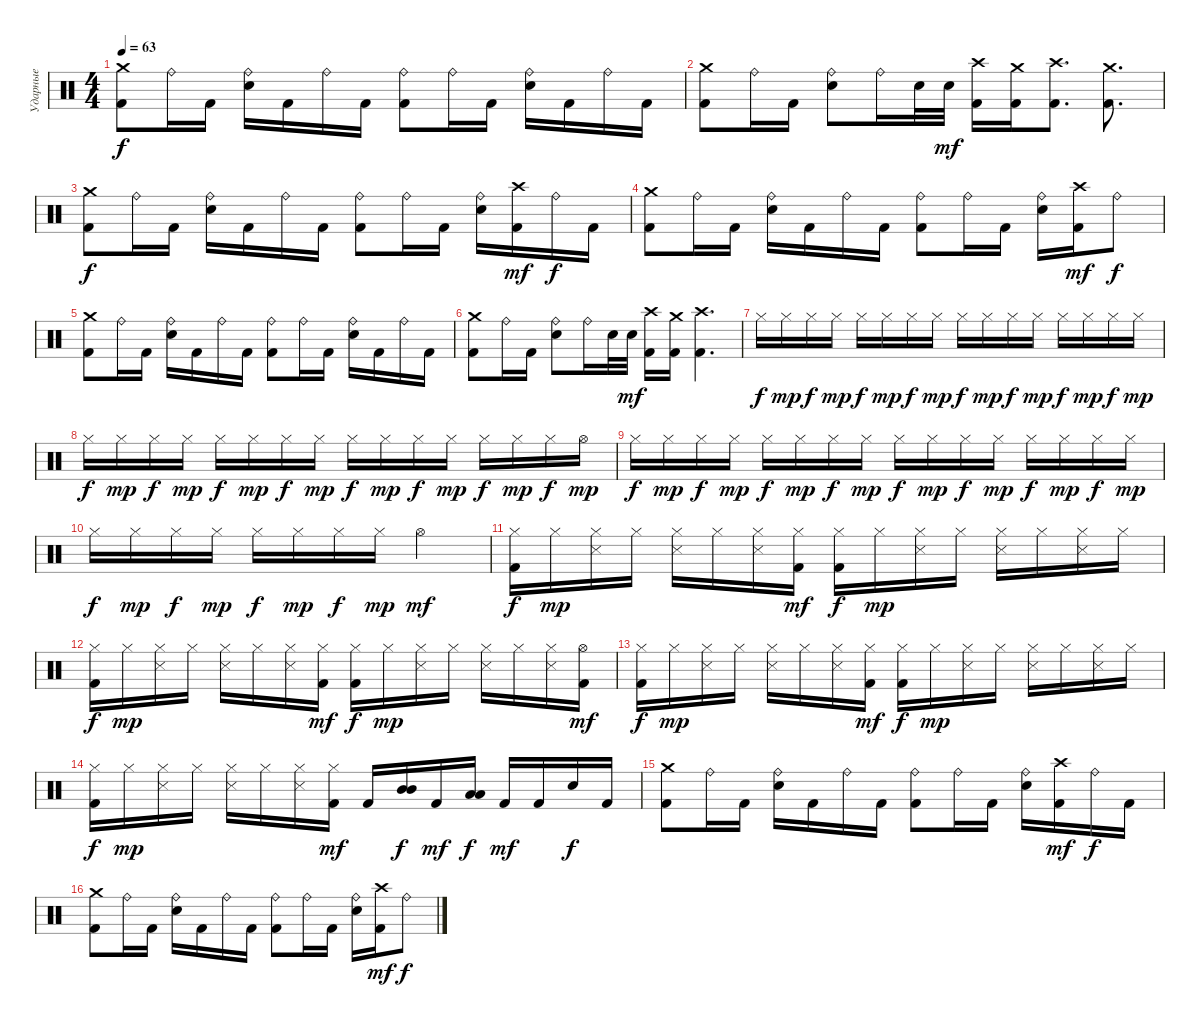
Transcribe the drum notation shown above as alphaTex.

\track ("Ударные" "Ударные") {instrument percussion}
\staff {score}
\articulation defaults
\ts (4 4)
\tempo 63
\clef neutral
\ks c
("Crash medium (hit)" "Kick (hit) 2").8{dy f} "Ride (bell)".16 "Kick (hit) 2".16 ("Ride (bell)" "Snare (hit) 2").16 "Kick (hit) 2".16 "Ride (bell)".16 "Kick (hit) 2".16 ("Ride (bell)" "Kick (hit) 2").8 "Ride (bell)".16 "Kick (hit) 2".16 ("Ride (bell)" "Snare (hit) 2").16 "Kick (hit) 2".16 "Ride (bell)".16 "Kick (hit) 2".16 |
("Crash medium (hit)" "Kick (hit) 2").8 "Ride (bell)".16 "Kick (hit) 2".16 ("Ride (bell)" "Snare (hit) 2").8 "Ride (bell)".16 "Snare (hit) 2".32 "Snare (hit) 2".32{dy mf} ("Crash high (hit)" "Kick (hit) 2").16 ("Crash medium (hit)" "Kick (hit) 2").16 ("Crash high (hit)" "Kick (hit) 2").8{d} ("Crash medium (hit)" "Kick (hit) 2").8{d} |
("Crash medium (hit)" "Kick (hit) 2").8{dy f} "Ride (bell)".16 "Kick (hit) 2".16 ("Ride (bell)" "Snare (hit) 2").16 "Kick (hit) 2".16 "Ride (bell)".16 "Kick (hit) 2".16 ("Ride (bell)" "Kick (hit) 2").8 "Ride (bell)".16 "Kick (hit) 2".16 ("Ride (bell)" "Snare (hit) 2").16 ("Crash high (hit)" "Kick (hit) 2").16{dy mf} "Ride (bell)".16{dy f} "Kick (hit) 2".16 |
("Crash medium (hit)" "Kick (hit) 2").8 "Ride (bell)".16 "Kick (hit) 2".16 ("Ride (bell)" "Snare (hit) 2").16 "Kick (hit) 2".16 "Ride (bell)".16 "Kick (hit) 2".16 ("Ride (bell)" "Kick (hit) 2").8 "Ride (bell)".16 "Kick (hit) 2".16 ("Ride (bell)" "Snare (hit) 2").16 ("Crash high (hit)" "Kick (hit) 2").16{dy mf} "Ride (bell)".8{dy f} |
("Crash medium (hit)" "Kick (hit) 2").8 "Ride (bell)".16 "Kick (hit) 2".16 ("Ride (bell)" "Snare (hit) 2").16 "Kick (hit) 2".16 "Ride (bell)".16 "Kick (hit) 2".16 ("Ride (bell)" "Kick (hit) 2").8 "Ride (bell)".16 "Kick (hit) 2".16 ("Ride (bell)" "Snare (hit) 2").16 "Kick (hit) 2".16 "Ride (bell)".16 "Kick (hit) 2".16 |
("Crash medium (hit)" "Kick (hit) 2").8 "Ride (bell)".16 "Kick (hit) 2".16 ("Ride (bell)" "Snare (hit) 2").8 "Ride (bell)".16 "Snare (hit) 2".32 "Snare (hit) 2".32{dy mf} ("Crash high (hit)" "Kick (hit) 2").16 ("Crash medium (hit)" "Kick (hit) 2").16 ("Crash high (hit)" "Kick (hit) 2").4{d} |
"Hi-Hat (closed)".16{dy f} "Hi-Hat (closed)".16{dy mp} "Hi-Hat (closed)".16{dy f} "Hi-Hat (closed)".16{dy mp} "Hi-Hat (closed)".16{dy f} "Hi-Hat (closed)".16{dy mp} "Hi-Hat (closed)".16{dy f} "Hi-Hat (closed)".16{dy mp} "Hi-Hat (closed)".16{dy f} "Hi-Hat (closed)".16{dy mp} "Hi-Hat (closed)".16{dy f} "Hi-Hat (closed)".16{dy mp} "Hi-Hat (closed)".16{dy f} "Hi-Hat (closed)".16{dy mp} "Hi-Hat (closed)".16{dy f} "Hi-Hat (closed)".16{dy mp} |
"Hi-Hat (closed)".16{dy f} "Hi-Hat (closed)".16{dy mp} "Hi-Hat (closed)".16{dy f} "Hi-Hat (closed)".16{dy mp} "Hi-Hat (closed)".16{dy f} "Hi-Hat (closed)".16{dy mp} "Hi-Hat (closed)".16{dy f} "Hi-Hat (closed)".16{dy mp} "Hi-Hat (closed)".16{dy f} "Hi-Hat (closed)".16{dy mp} "Hi-Hat (closed)".16{dy f} "Hi-Hat (closed)".16{dy mp} "Hi-Hat (closed)".16{dy f} "Hi-Hat (closed)".16{dy mp} "Hi-Hat (closed)".16{dy f} "Hi-Hat (open)".16{dy mp} |
"Hi-Hat (closed)".16{dy f} "Hi-Hat (closed)".16{dy mp} "Hi-Hat (closed)".16{dy f} "Hi-Hat (closed)".16{dy mp} "Hi-Hat (closed)".16{dy f} "Hi-Hat (closed)".16{dy mp} "Hi-Hat (closed)".16{dy f} "Hi-Hat (closed)".16{dy mp} "Hi-Hat (closed)".16{dy f} "Hi-Hat (closed)".16{dy mp} "Hi-Hat (closed)".16{dy f} "Hi-Hat (closed)".16{dy mp} "Hi-Hat (closed)".16{dy f} "Hi-Hat (closed)".16{dy mp} "Hi-Hat (closed)".16{dy f} "Hi-Hat (closed)".16{dy mp} |
"Hi-Hat (closed)".16{dy f} "Hi-Hat (closed)".16{dy mp} "Hi-Hat (closed)".16{dy f} "Hi-Hat (closed)".16{dy mp} "Hi-Hat (closed)".16{dy f} "Hi-Hat (closed)".16{dy mp} "Hi-Hat (closed)".16{dy f} "Hi-Hat (closed)".16{dy mp} "Hi-Hat (open)".2{dy mf} |
("Hi-Hat (closed)" "Kick (hit) 2").16{dy f} "Hi-Hat (closed)".16{dy mp} ("Snare (side stick) 3" "Hi-Hat (closed)").16 "Hi-Hat (closed)".16 ("Snare (side stick) 3" "Hi-Hat (closed)").16 "Hi-Hat (closed)".16 ("Snare (side stick) 3" "Hi-Hat (closed)").16 ("Hi-Hat (closed)" "Kick (hit) 2").16{dy mf} ("Hi-Hat (closed)" "Kick (hit) 2").16{dy f} "Hi-Hat (closed)".16{dy mp} ("Snare (side stick) 3" "Hi-Hat (closed)").16 "Hi-Hat (closed)".16 ("Snare (side stick) 3" "Hi-Hat (closed)").16 "Hi-Hat (closed)".16 ("Snare (side stick) 3" "Hi-Hat (closed)").16 "Hi-Hat (closed)".16 |
("Hi-Hat (closed)" "Kick (hit) 2").16{dy f} "Hi-Hat (closed)".16{dy mp} ("Snare (side stick) 3" "Hi-Hat (closed)").16 "Hi-Hat (closed)".16 ("Snare (side stick) 3" "Hi-Hat (closed)").16 "Hi-Hat (closed)".16 ("Snare (side stick) 3" "Hi-Hat (closed)").16 ("Hi-Hat (closed)" "Kick (hit) 2").16{dy mf} ("Hi-Hat (closed)" "Kick (hit) 2").16{dy f} "Hi-Hat (closed)".16{dy mp} ("Snare (side stick) 3" "Hi-Hat (closed)").16 "Hi-Hat (closed)".16 ("Snare (side stick) 3" "Hi-Hat (closed)").16 "Hi-Hat (closed)".16 ("Snare (side stick) 3" "Hi-Hat (closed)").16 ("Hi-Hat (open)" "Kick (hit) 2").16{dy mf} |
("Hi-Hat (closed)" "Kick (hit) 2").16{dy f} "Hi-Hat (closed)".16{dy mp} ("Snare (side stick) 3" "Hi-Hat (closed)").16 "Hi-Hat (closed)".16 ("Snare (side stick) 3" "Hi-Hat (closed)").16 "Hi-Hat (closed)".16 ("Snare (side stick) 3" "Hi-Hat (closed)").16 ("Hi-Hat (closed)" "Kick (hit) 2").16{dy mf} ("Hi-Hat (closed)" "Kick (hit) 2").16{dy f} "Hi-Hat (closed)".16{dy mp} ("Snare (side stick) 3" "Hi-Hat (closed)").16 "Hi-Hat (closed)".16 ("Snare (side stick) 3" "Hi-Hat (closed)").16 "Hi-Hat (closed)".16 ("Snare (side stick) 3" "Hi-Hat (closed)").16 "Hi-Hat (closed)".16 |
("Hi-Hat (closed)" "Kick (hit) 2").16{dy f} "Hi-Hat (closed)".16{dy mp} ("Snare (side stick) 3" "Hi-Hat (closed)").16 "Hi-Hat (closed)".16 ("Snare (side stick) 3" "Hi-Hat (closed)").16 "Hi-Hat (closed)".16 ("Snare (side stick) 3" "Hi-Hat (closed)").16 ("Hi-Hat (closed)" "Kick (hit) 2").16{dy mf} "Kick (hit) 2".16 ("Mid Tom (hit)" "Mid Tom (hit)").16{bd 120 dy f} "Kick (hit) 2".16{dy mf} ("Low Tom (hit)" "Low Tom (hit)").16{bd 120 dy f} "Kick (hit) 2".16{dy mf} "Kick (hit) 2".16 "Snare (hit) 2".16{bd 120 dy f} "Kick (hit) 2".16{bd 120} |
("Crash medium (hit)" "Kick (hit) 2").8 "Ride (bell)".16 "Kick (hit) 2".16 ("Ride (bell)" "Snare (hit) 2").16 "Kick (hit) 2".16 "Ride (bell)".16 "Kick (hit) 2".16 ("Ride (bell)" "Kick (hit) 2").8 "Ride (bell)".16 "Kick (hit) 2".16 ("Ride (bell)" "Snare (hit) 2").16 ("Crash high (hit)" "Kick (hit) 2").16{dy mf} "Ride (bell)".16{dy f} "Kick (hit) 2".16 |
("Crash medium (hit)" "Kick (hit) 2").8 "Ride (bell)".16 "Kick (hit) 2".16 ("Ride (bell)" "Snare (hit) 2").16 "Kick (hit) 2".16 "Ride (bell)".16 "Kick (hit) 2".16 ("Ride (bell)" "Kick (hit) 2").8 "Ride (bell)".16 "Kick (hit) 2".16 ("Ride (bell)" "Snare (hit) 2").16 ("Crash high (hit)" "Kick (hit) 2").16{dy mf} "Ride (bell)".8{dy f}
